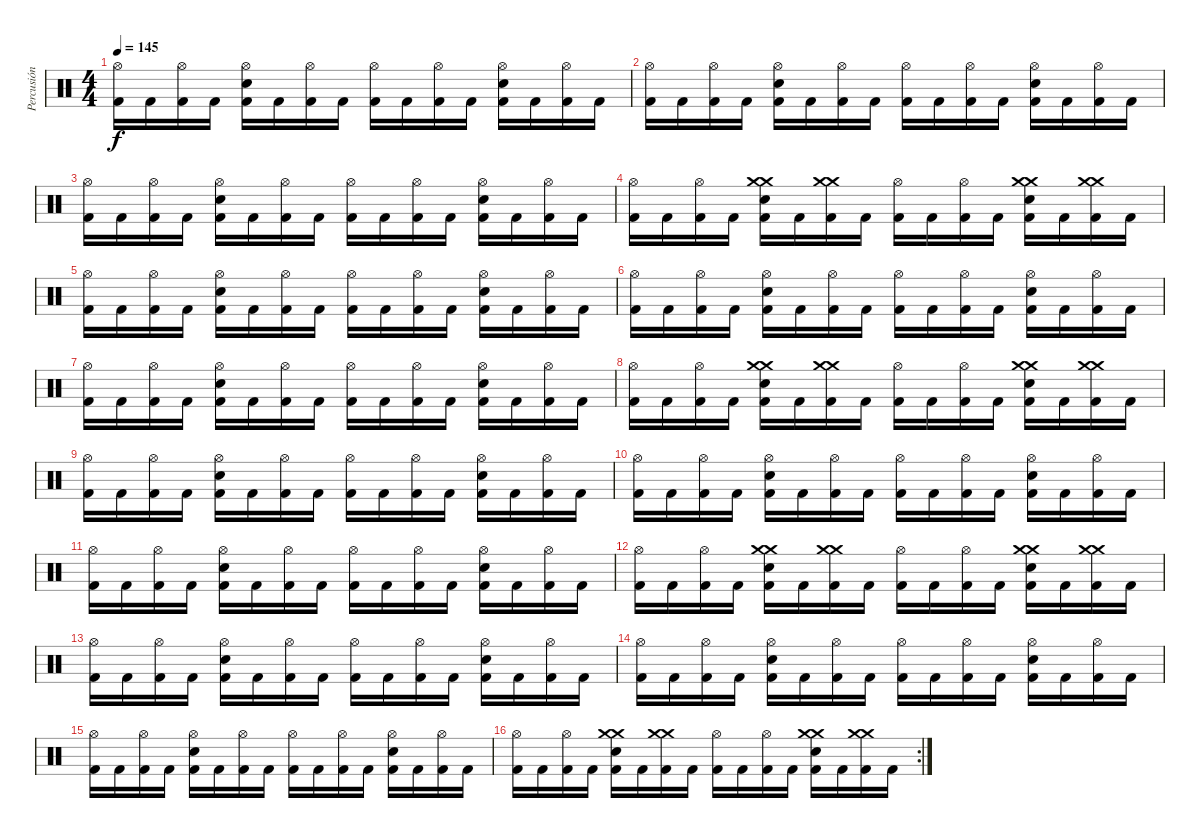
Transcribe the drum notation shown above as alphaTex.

\track ("Percusión" "Percusión") {instrument percussion}
\staff {score}
\articulation defaults
\ts (4 4)
\tempo 145
\clef neutral
\ks c
("Hi-Hat (open)" "Kick (hit) 2").16{dy f} "Kick (hit) 2".16 ("Hi-Hat (open)" "Kick (hit) 2").16 "Kick (hit) 2".16 ("Hi-Hat (open)" "Snare (hit) 2" "Kick (hit) 2").16 "Kick (hit) 2".16 ("Hi-Hat (open)" "Kick (hit) 2").16 "Kick (hit) 2".16 ("Hi-Hat (open)" "Kick (hit) 2").16 "Kick (hit) 2".16 ("Hi-Hat (open)" "Kick (hit) 2").16 "Kick (hit) 2".16 ("Hi-Hat (open)" "Snare (hit) 2" "Kick (hit) 2").16 "Kick (hit) 2".16 ("Hi-Hat (open)" "Kick (hit) 2").16 "Kick (hit) 2".16 |
("Hi-Hat (open)" "Kick (hit) 2").16 "Kick (hit) 2".16 ("Hi-Hat (open)" "Kick (hit) 2").16 "Kick (hit) 2".16 ("Hi-Hat (open)" "Snare (hit) 2" "Kick (hit) 2").16 "Kick (hit) 2".16 ("Hi-Hat (open)" "Kick (hit) 2").16 "Kick (hit) 2".16 ("Hi-Hat (open)" "Kick (hit) 2").16 "Kick (hit) 2".16 ("Hi-Hat (open)" "Kick (hit) 2").16 "Kick (hit) 2".16 ("Hi-Hat (open)" "Snare (hit) 2" "Kick (hit) 2").16 "Kick (hit) 2".16 ("Hi-Hat (open)" "Kick (hit) 2").16 "Kick (hit) 2".16 |
("Hi-Hat (open)" "Kick (hit) 2").16 "Kick (hit) 2".16 ("Hi-Hat (open)" "Kick (hit) 2").16 "Kick (hit) 2".16 ("Hi-Hat (open)" "Snare (hit) 2" "Kick (hit) 2").16 "Kick (hit) 2".16 ("Hi-Hat (open)" "Kick (hit) 2").16 "Kick (hit) 2".16 ("Hi-Hat (open)" "Kick (hit) 2").16 "Kick (hit) 2".16 ("Hi-Hat (open)" "Kick (hit) 2").16 "Kick (hit) 2".16 ("Hi-Hat (open)" "Snare (hit) 2" "Kick (hit) 2").16 "Kick (hit) 2".16 ("Hi-Hat (open)" "Kick (hit) 2").16 "Kick (hit) 2".16 |
("Hi-Hat (open)" "Kick (hit) 2").16 "Kick (hit) 2".16 ("Hi-Hat (open)" "Kick (hit) 2").16 "Kick (hit) 2".16 ("Crash medium (hit)" "Crash medium (hit)" "Snare (hit) 2" "Kick (hit) 2").16 "Kick (hit) 2".16 ("Crash medium (hit)" "Crash medium (hit)" "Kick (hit) 2").16 "Kick (hit) 2".16 ("Hi-Hat (open)" "Kick (hit) 2").16 "Kick (hit) 2".16 ("Hi-Hat (open)" "Kick (hit) 2").16 "Kick (hit) 2".16 ("Crash medium (hit)" "Crash medium (hit)" "Snare (hit) 2" "Kick (hit) 2").16 "Kick (hit) 2".16 ("Crash medium (hit)" "Crash medium (hit)" "Kick (hit) 2").16 "Kick (hit) 2".16 |
("Hi-Hat (open)" "Kick (hit) 2").16 "Kick (hit) 2".16 ("Hi-Hat (open)" "Kick (hit) 2").16 "Kick (hit) 2".16 ("Hi-Hat (open)" "Snare (hit) 2" "Kick (hit) 2").16 "Kick (hit) 2".16 ("Hi-Hat (open)" "Kick (hit) 2").16 "Kick (hit) 2".16 ("Hi-Hat (open)" "Kick (hit) 2").16 "Kick (hit) 2".16 ("Hi-Hat (open)" "Kick (hit) 2").16 "Kick (hit) 2".16 ("Hi-Hat (open)" "Snare (hit) 2" "Kick (hit) 2").16 "Kick (hit) 2".16 ("Hi-Hat (open)" "Kick (hit) 2").16 "Kick (hit) 2".16 |
("Hi-Hat (open)" "Kick (hit) 2").16 "Kick (hit) 2".16 ("Hi-Hat (open)" "Kick (hit) 2").16 "Kick (hit) 2".16 ("Hi-Hat (open)" "Snare (hit) 2" "Kick (hit) 2").16 "Kick (hit) 2".16 ("Hi-Hat (open)" "Kick (hit) 2").16 "Kick (hit) 2".16 ("Hi-Hat (open)" "Kick (hit) 2").16 "Kick (hit) 2".16 ("Hi-Hat (open)" "Kick (hit) 2").16 "Kick (hit) 2".16 ("Hi-Hat (open)" "Snare (hit) 2" "Kick (hit) 2").16 "Kick (hit) 2".16 ("Hi-Hat (open)" "Kick (hit) 2").16 "Kick (hit) 2".16 |
("Hi-Hat (open)" "Kick (hit) 2").16 "Kick (hit) 2".16 ("Hi-Hat (open)" "Kick (hit) 2").16 "Kick (hit) 2".16 ("Hi-Hat (open)" "Snare (hit) 2" "Kick (hit) 2").16 "Kick (hit) 2".16 ("Hi-Hat (open)" "Kick (hit) 2").16 "Kick (hit) 2".16 ("Hi-Hat (open)" "Kick (hit) 2").16 "Kick (hit) 2".16 ("Hi-Hat (open)" "Kick (hit) 2").16 "Kick (hit) 2".16 ("Hi-Hat (open)" "Snare (hit) 2" "Kick (hit) 2").16 "Kick (hit) 2".16 ("Hi-Hat (open)" "Kick (hit) 2").16 "Kick (hit) 2".16 |
("Hi-Hat (open)" "Kick (hit) 2").16 "Kick (hit) 2".16 ("Hi-Hat (open)" "Kick (hit) 2").16 "Kick (hit) 2".16 ("Crash medium (hit)" "Crash medium (hit)" "Snare (hit) 2" "Kick (hit) 2").16 "Kick (hit) 2".16 ("Crash medium (hit)" "Crash medium (hit)" "Kick (hit) 2").16 "Kick (hit) 2".16 ("Hi-Hat (open)" "Kick (hit) 2").16 "Kick (hit) 2".16 ("Hi-Hat (open)" "Kick (hit) 2").16 "Kick (hit) 2".16 ("Crash medium (hit)" "Crash medium (hit)" "Snare (hit) 2" "Kick (hit) 2").16 "Kick (hit) 2".16 ("Crash medium (hit)" "Crash medium (hit)" "Kick (hit) 2").16 "Kick (hit) 2".16 |
("Hi-Hat (open)" "Kick (hit) 2").16 "Kick (hit) 2".16 ("Hi-Hat (open)" "Kick (hit) 2").16 "Kick (hit) 2".16 ("Hi-Hat (open)" "Snare (hit) 2" "Kick (hit) 2").16 "Kick (hit) 2".16 ("Hi-Hat (open)" "Kick (hit) 2").16 "Kick (hit) 2".16 ("Hi-Hat (open)" "Kick (hit) 2").16 "Kick (hit) 2".16 ("Hi-Hat (open)" "Kick (hit) 2").16 "Kick (hit) 2".16 ("Hi-Hat (open)" "Snare (hit) 2" "Kick (hit) 2").16 "Kick (hit) 2".16 ("Hi-Hat (open)" "Kick (hit) 2").16 "Kick (hit) 2".16 |
("Hi-Hat (open)" "Kick (hit) 2").16 "Kick (hit) 2".16 ("Hi-Hat (open)" "Kick (hit) 2").16 "Kick (hit) 2".16 ("Hi-Hat (open)" "Snare (hit) 2" "Kick (hit) 2").16 "Kick (hit) 2".16 ("Hi-Hat (open)" "Kick (hit) 2").16 "Kick (hit) 2".16 ("Hi-Hat (open)" "Kick (hit) 2").16 "Kick (hit) 2".16 ("Hi-Hat (open)" "Kick (hit) 2").16 "Kick (hit) 2".16 ("Hi-Hat (open)" "Snare (hit) 2" "Kick (hit) 2").16 "Kick (hit) 2".16 ("Hi-Hat (open)" "Kick (hit) 2").16 "Kick (hit) 2".16 |
("Hi-Hat (open)" "Kick (hit) 2").16 "Kick (hit) 2".16 ("Hi-Hat (open)" "Kick (hit) 2").16 "Kick (hit) 2".16 ("Hi-Hat (open)" "Snare (hit) 2" "Kick (hit) 2").16 "Kick (hit) 2".16 ("Hi-Hat (open)" "Kick (hit) 2").16 "Kick (hit) 2".16 ("Hi-Hat (open)" "Kick (hit) 2").16 "Kick (hit) 2".16 ("Hi-Hat (open)" "Kick (hit) 2").16 "Kick (hit) 2".16 ("Hi-Hat (open)" "Snare (hit) 2" "Kick (hit) 2").16 "Kick (hit) 2".16 ("Hi-Hat (open)" "Kick (hit) 2").16 "Kick (hit) 2".16 |
("Hi-Hat (open)" "Kick (hit) 2").16 "Kick (hit) 2".16 ("Hi-Hat (open)" "Kick (hit) 2").16 "Kick (hit) 2".16 ("Crash medium (hit)" "Crash medium (hit)" "Snare (hit) 2" "Kick (hit) 2").16 "Kick (hit) 2".16 ("Crash medium (hit)" "Crash medium (hit)" "Kick (hit) 2").16 "Kick (hit) 2".16 ("Hi-Hat (open)" "Kick (hit) 2").16 "Kick (hit) 2".16 ("Hi-Hat (open)" "Kick (hit) 2").16 "Kick (hit) 2".16 ("Crash medium (hit)" "Crash medium (hit)" "Snare (hit) 2" "Kick (hit) 2").16 "Kick (hit) 2".16 ("Crash medium (hit)" "Crash medium (hit)" "Kick (hit) 2").16 "Kick (hit) 2".16 |
("Hi-Hat (open)" "Kick (hit) 2").16 "Kick (hit) 2".16 ("Hi-Hat (open)" "Kick (hit) 2").16 "Kick (hit) 2".16 ("Hi-Hat (open)" "Snare (hit) 2" "Kick (hit) 2").16 "Kick (hit) 2".16 ("Hi-Hat (open)" "Kick (hit) 2").16 "Kick (hit) 2".16 ("Hi-Hat (open)" "Kick (hit) 2").16 "Kick (hit) 2".16 ("Hi-Hat (open)" "Kick (hit) 2").16 "Kick (hit) 2".16 ("Hi-Hat (open)" "Snare (hit) 2" "Kick (hit) 2").16 "Kick (hit) 2".16 ("Hi-Hat (open)" "Kick (hit) 2").16 "Kick (hit) 2".16 |
("Hi-Hat (open)" "Kick (hit) 2").16 "Kick (hit) 2".16 ("Hi-Hat (open)" "Kick (hit) 2").16 "Kick (hit) 2".16 ("Hi-Hat (open)" "Snare (hit) 2" "Kick (hit) 2").16 "Kick (hit) 2".16 ("Hi-Hat (open)" "Kick (hit) 2").16 "Kick (hit) 2".16 ("Hi-Hat (open)" "Kick (hit) 2").16 "Kick (hit) 2".16 ("Hi-Hat (open)" "Kick (hit) 2").16 "Kick (hit) 2".16 ("Hi-Hat (open)" "Snare (hit) 2" "Kick (hit) 2").16 "Kick (hit) 2".16 ("Hi-Hat (open)" "Kick (hit) 2").16 "Kick (hit) 2".16 |
("Hi-Hat (open)" "Kick (hit) 2").16 "Kick (hit) 2".16 ("Hi-Hat (open)" "Kick (hit) 2").16 "Kick (hit) 2".16 ("Hi-Hat (open)" "Snare (hit) 2" "Kick (hit) 2").16 "Kick (hit) 2".16 ("Hi-Hat (open)" "Kick (hit) 2").16 "Kick (hit) 2".16 ("Hi-Hat (open)" "Kick (hit) 2").16 "Kick (hit) 2".16 ("Hi-Hat (open)" "Kick (hit) 2").16 "Kick (hit) 2".16 ("Hi-Hat (open)" "Snare (hit) 2" "Kick (hit) 2").16 "Kick (hit) 2".16 ("Hi-Hat (open)" "Kick (hit) 2").16 "Kick (hit) 2".16 |
\rc 2
("Hi-Hat (open)" "Kick (hit) 2").16 "Kick (hit) 2".16 ("Hi-Hat (open)" "Kick (hit) 2").16 "Kick (hit) 2".16 ("Crash medium (hit)" "Crash medium (hit)" "Snare (hit) 2" "Kick (hit) 2").16 "Kick (hit) 2".16 ("Crash medium (hit)" "Crash medium (hit)" "Kick (hit) 2").16 "Kick (hit) 2".16 ("Hi-Hat (open)" "Kick (hit) 2").16 "Kick (hit) 2".16 ("Hi-Hat (open)" "Kick (hit) 2").16 "Kick (hit) 2".16 ("Crash medium (hit)" "Crash medium (hit)" "Snare (hit) 2" "Kick (hit) 2").16 "Kick (hit) 2".16 ("Crash medium (hit)" "Crash medium (hit)" "Kick (hit) 2").16 "Kick (hit) 2".16
